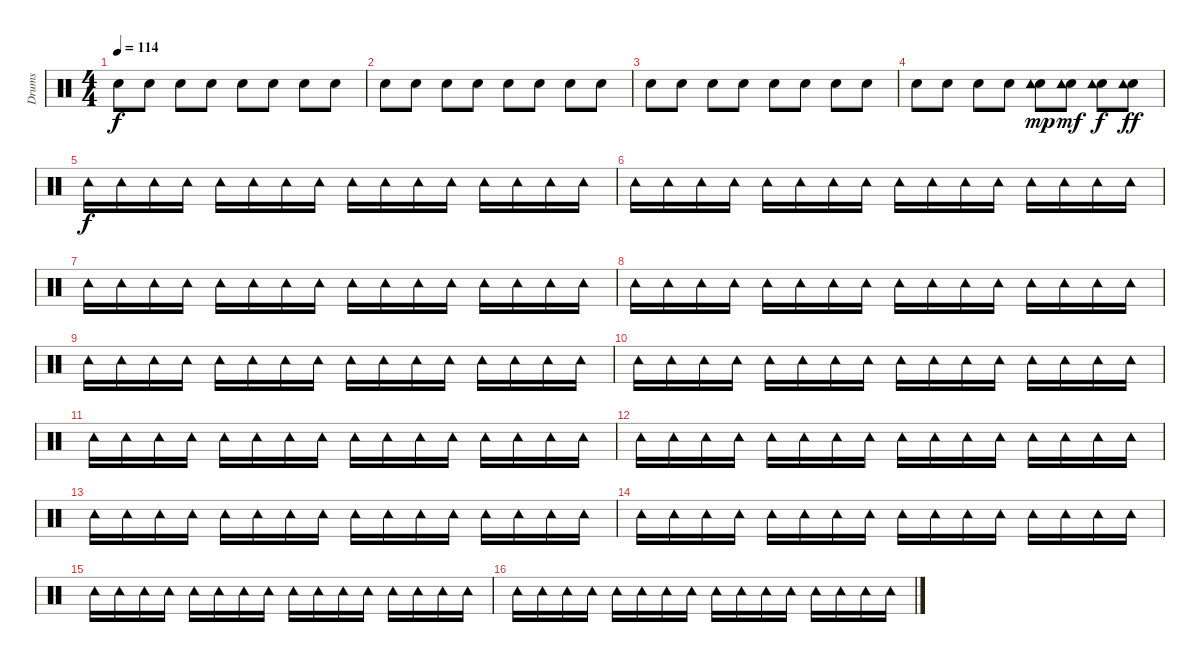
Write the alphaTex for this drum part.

\track ("Drums" "Drums") {instrument percussion}
\staff {score}
\articulation defaults
\ts (4 4)
\tempo 114
\clef neutral
\ks c "Electric Snare (hit)".8{dy f} "Electric Snare (hit)".8 "Electric Snare (hit)".8 "Electric Snare (hit)".8 "Electric Snare (hit)".8 "Electric Snare (hit)".8 "Electric Snare (hit)".8 "Electric Snare (hit)".8
|
"Electric Snare (hit)".8 "Electric Snare (hit)".8 "Electric Snare (hit)".8 "Electric Snare (hit)".8 "Electric Snare (hit)".8 "Electric Snare (hit)".8 "Electric Snare (hit)".8 "Electric Snare (hit)".8 |
"Electric Snare (hit)".8 "Electric Snare (hit)".8 "Electric Snare (hit)".8 "Electric Snare (hit)".8 "Electric Snare (hit)".8 "Electric Snare (hit)".8 "Electric Snare (hit)".8 "Electric Snare (hit)".8 |
"Electric Snare (hit)".8 "Electric Snare (hit)".8 "Electric Snare (hit)".8 "Electric Snare (hit)".8 ("Electric Snare (hit)" "Tambourine (hit)").8{dy mp} ("Electric Snare (hit)" "Tambourine (hit)").8{dy mf} ("Electric Snare (hit)" "Tambourine (hit)").8{dy f} ("Electric Snare (hit)" "Tambourine (hit)").8{dy ff} |
"Tambourine (hit)".16{dy f} "Tambourine (hit)".16 "Tambourine (hit)".16 "Tambourine (hit)".16 "Tambourine (hit)".16 "Tambourine (hit)".16 "Tambourine (hit)".16 "Tambourine (hit)".16 "Tambourine (hit)".16 "Tambourine (hit)".16 "Tambourine (hit)".16 "Tambourine (hit)".16 "Tambourine (hit)".16 "Tambourine (hit)".16 "Tambourine (hit)".16 "Tambourine (hit)".16 |
"Tambourine (hit)".16 "Tambourine (hit)".16 "Tambourine (hit)".16 "Tambourine (hit)".16 "Tambourine (hit)".16 "Tambourine (hit)".16 "Tambourine (hit)".16 "Tambourine (hit)".16 "Tambourine (hit)".16 "Tambourine (hit)".16 "Tambourine (hit)".16 "Tambourine (hit)".16 "Tambourine (hit)".16 "Tambourine (hit)".16 "Tambourine (hit)".16 "Tambourine (hit)".16 |
"Tambourine (hit)".16 "Tambourine (hit)".16 "Tambourine (hit)".16 "Tambourine (hit)".16 "Tambourine (hit)".16 "Tambourine (hit)".16 "Tambourine (hit)".16 "Tambourine (hit)".16 "Tambourine (hit)".16 "Tambourine (hit)".16 "Tambourine (hit)".16 "Tambourine (hit)".16 "Tambourine (hit)".16 "Tambourine (hit)".16 "Tambourine (hit)".16 "Tambourine (hit)".16 |
"Tambourine (hit)".16 "Tambourine (hit)".16 "Tambourine (hit)".16 "Tambourine (hit)".16 "Tambourine (hit)".16 "Tambourine (hit)".16 "Tambourine (hit)".16 "Tambourine (hit)".16 "Tambourine (hit)".16 "Tambourine (hit)".16 "Tambourine (hit)".16 "Tambourine (hit)".16 "Tambourine (hit)".16 "Tambourine (hit)".16 "Tambourine (hit)".16 "Tambourine (hit)".16 |
"Tambourine (hit)".16 "Tambourine (hit)".16 "Tambourine (hit)".16 "Tambourine (hit)".16 "Tambourine (hit)".16 "Tambourine (hit)".16 "Tambourine (hit)".16 "Tambourine (hit)".16 "Tambourine (hit)".16 "Tambourine (hit)".16 "Tambourine (hit)".16 "Tambourine (hit)".16 "Tambourine (hit)".16 "Tambourine (hit)".16 "Tambourine (hit)".16 "Tambourine (hit)".16 |
"Tambourine (hit)".16 "Tambourine (hit)".16 "Tambourine (hit)".16 "Tambourine (hit)".16 "Tambourine (hit)".16 "Tambourine (hit)".16 "Tambourine (hit)".16 "Tambourine (hit)".16 "Tambourine (hit)".16 "Tambourine (hit)".16 "Tambourine (hit)".16 "Tambourine (hit)".16 "Tambourine (hit)".16 "Tambourine (hit)".16 "Tambourine (hit)".16 "Tambourine (hit)".16 |
"Tambourine (hit)".16 "Tambourine (hit)".16 "Tambourine (hit)".16 "Tambourine (hit)".16 "Tambourine (hit)".16 "Tambourine (hit)".16 "Tambourine (hit)".16 "Tambourine (hit)".16 "Tambourine (hit)".16 "Tambourine (hit)".16 "Tambourine (hit)".16 "Tambourine (hit)".16 "Tambourine (hit)".16 "Tambourine (hit)".16 "Tambourine (hit)".16 "Tambourine (hit)".16 |
"Tambourine (hit)".16 "Tambourine (hit)".16 "Tambourine (hit)".16 "Tambourine (hit)".16 "Tambourine (hit)".16 "Tambourine (hit)".16 "Tambourine (hit)".16 "Tambourine (hit)".16 "Tambourine (hit)".16 "Tambourine (hit)".16 "Tambourine (hit)".16 "Tambourine (hit)".16 "Tambourine (hit)".16 "Tambourine (hit)".16 "Tambourine (hit)".16 "Tambourine (hit)".16 |
"Tambourine (hit)".16 "Tambourine (hit)".16 "Tambourine (hit)".16 "Tambourine (hit)".16 "Tambourine (hit)".16 "Tambourine (hit)".16 "Tambourine (hit)".16 "Tambourine (hit)".16 "Tambourine (hit)".16 "Tambourine (hit)".16 "Tambourine (hit)".16 "Tambourine (hit)".16 "Tambourine (hit)".16 "Tambourine (hit)".16 "Tambourine (hit)".16 "Tambourine (hit)".16 |
"Tambourine (hit)".16 "Tambourine (hit)".16 "Tambourine (hit)".16 "Tambourine (hit)".16 "Tambourine (hit)".16 "Tambourine (hit)".16 "Tambourine (hit)".16 "Tambourine (hit)".16 "Tambourine (hit)".16 "Tambourine (hit)".16 "Tambourine (hit)".16 "Tambourine (hit)".16 "Tambourine (hit)".16 "Tambourine (hit)".16 "Tambourine (hit)".16 "Tambourine (hit)".16 |
"Tambourine (hit)".16 "Tambourine (hit)".16 "Tambourine (hit)".16 "Tambourine (hit)".16 "Tambourine (hit)".16 "Tambourine (hit)".16 "Tambourine (hit)".16 "Tambourine (hit)".16 "Tambourine (hit)".16 "Tambourine (hit)".16 "Tambourine (hit)".16 "Tambourine (hit)".16 "Tambourine (hit)".16 "Tambourine (hit)".16 "Tambourine (hit)".16 "Tambourine (hit)".16 |
"Tambourine (hit)".16 "Tambourine (hit)".16 "Tambourine (hit)".16 "Tambourine (hit)".16 "Tambourine (hit)".16 "Tambourine (hit)".16 "Tambourine (hit)".16 "Tambourine (hit)".16 "Tambourine (hit)".16 "Tambourine (hit)".16 "Tambourine (hit)".16 "Tambourine (hit)".16 "Tambourine (hit)".16 "Tambourine (hit)".16 "Tambourine (hit)".16 "Tambourine (hit)".16
